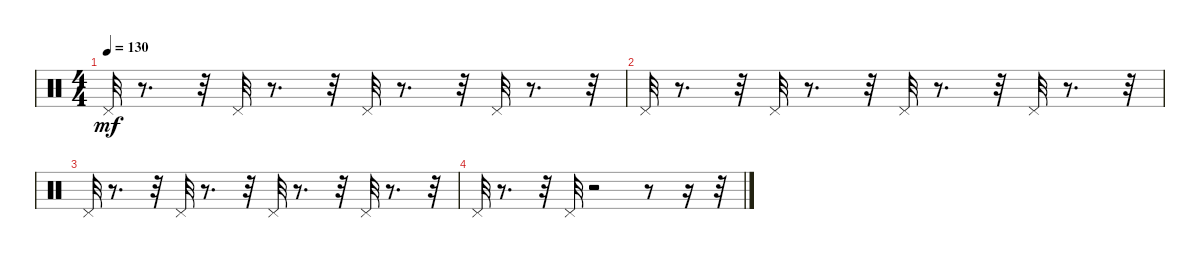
\track "" {instrument percussion}
\staff {score}
\articulation defaults
\ts (4 4)
\tempo 130
\clef neutral
\ks c "Pedal Hi-Hat (hit)".32{dy mf}
r.8{d} r.32 "Pedal Hi-Hat (hit)".32 r.8{d} r.32 "Pedal Hi-Hat (hit)".32 r.8{d} r.32 "Pedal Hi-Hat (hit)".32 r.8{d} r.32 |
"Pedal Hi-Hat (hit)".32 r.8{d} r.32 "Pedal Hi-Hat (hit)".32 r.8{d} r.32 "Pedal Hi-Hat (hit)".32 r.8{d} r.32 "Pedal Hi-Hat (hit)".32 r.8{d} r.32 |
"Pedal Hi-Hat (hit)".32 r.8{d} r.32 "Pedal Hi-Hat (hit)".32 r.8{d} r.32 "Pedal Hi-Hat (hit)".32 r.8{d} r.32 "Pedal Hi-Hat (hit)".32 r.8{d} r.32 |
"Pedal Hi-Hat (hit)".32 r.8{d} r.32 "Pedal Hi-Hat (hit)".32 r.2 r.8 r.16 r.32
